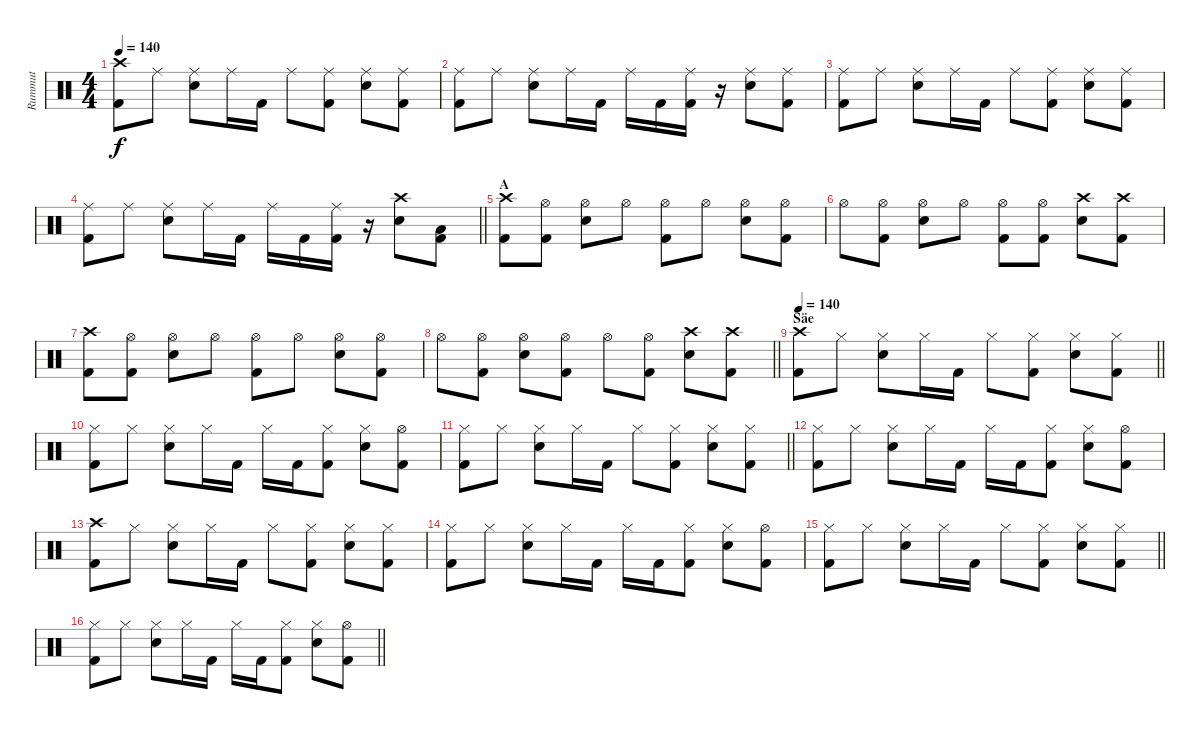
\track ("Rummut" "Rummut") {instrument percussion}
\staff {score}
\articulation defaults
\ts (4 4)
\tempo 140
\clef neutral
\ks c
("Crash high (hit)" "Kick (hit) 2").8{dy f} "Ride (middle)".8 ("Ride (middle)" "Snare (hit) 2").8 "Ride (middle)".16 "Kick (hit) 2".16 "Ride (middle)".8 ("Ride (middle)" "Kick (hit) 2").8 ("Ride (middle)" "Snare (hit) 2").8 ("Ride (middle)" "Kick (hit) 2").8 |
("Ride (middle)" "Kick (hit) 2").8 "Ride (middle)".8 ("Ride (middle)" "Snare (hit) 2").8 "Ride (middle)".16 "Kick (hit) 2".16 "Ride (middle)".16 "Kick (hit) 2".16 ("Ride (middle)" "Kick (hit) 2").16 r.16 ("Ride (middle)" "Snare (hit) 2").8 ("Ride (middle)" "Kick (hit) 2").8 |
("Ride (middle)" "Kick (hit) 2").8 "Ride (middle)".8 ("Ride (middle)" "Snare (hit) 2").8 "Ride (middle)".16 "Kick (hit) 2".16 "Ride (middle)".8 ("Ride (middle)" "Kick (hit) 2").8 ("Ride (middle)" "Snare (hit) 2").8 ("Ride (middle)" "Kick (hit) 2").8 |
\barLineRight lightlight
("Ride (middle)" "Kick (hit) 2").8 "Ride (middle)".8 ("Ride (middle)" "Snare (hit) 2").8 "Ride (middle)".16 "Kick (hit) 2".16 "Ride (middle)".16 "Kick (hit) 2".16 ("Ride (middle)" "Kick (hit) 2").16 r.16 ("Crash high (hit)" "Snare (hit) 2").8 ("Low Floor Tom (hit)" "Kick (hit) 2").8 |
\section ("" "A")
("Crash high (hit)" "Kick (hit) 2").8 ("Hi-Hat (open)" "Kick (hit) 2").8 ("Hi-Hat (open)" "Snare (hit) 2").8 "Hi-Hat (open)".8 ("Hi-Hat (open)" "Kick (hit) 2").8 "Hi-Hat (open)".8 ("Hi-Hat (open)" "Snare (hit) 2").8 ("Hi-Hat (open)" "Kick (hit) 2").8 |
"Hi-Hat (open)".8 ("Hi-Hat (open)" "Kick (hit) 2").8 ("Hi-Hat (open)" "Snare (hit) 2").8 "Hi-Hat (open)".8 ("Hi-Hat (open)" "Kick (hit) 2").8 ("Hi-Hat (open)" "Kick (hit) 2").8 ("Crash high (hit)" "Snare (hit) 2").8 ("Crash high (hit)" "Kick (hit) 2").8 |
("Crash high (hit)" "Kick (hit) 2").8 ("Hi-Hat (open)" "Kick (hit) 2").8 ("Hi-Hat (open)" "Snare (hit) 2").8 "Hi-Hat (open)".8 ("Hi-Hat (open)" "Kick (hit) 2").8 "Hi-Hat (open)".8 ("Hi-Hat (open)" "Snare (hit) 2").8 ("Hi-Hat (open)" "Kick (hit) 2").8 |
\barLineRight lightlight "Hi-Hat (open)".8
("Hi-Hat (open)" "Kick (hit) 2").8 ("Hi-Hat (open)" "Snare (hit) 2").8 ("Hi-Hat (open)" "Kick (hit) 2").8 "Hi-Hat (open)".8 ("Hi-Hat (open)" "Kick (hit) 2").8 ("Crash high (hit)" "Snare (hit) 2").8 ("Crash high (hit)" "Kick (hit) 2").8 |
\section ("" "Säe")
\tempo 140
\barLineRight lightlight
("Crash high (hit)" "Kick (hit) 2").8 "Hi-Hat (closed)".8 ("Hi-Hat (closed)" "Snare (hit) 2").8 "Hi-Hat (closed)".16 "Kick (hit) 2".16 "Hi-Hat (closed)".8 ("Hi-Hat (closed)" "Kick (hit) 2").8 ("Hi-Hat (closed)" "Snare (hit) 2").8 ("Hi-Hat (closed)" "Kick (hit) 2").8 |
("Hi-Hat (closed)" "Kick (hit) 2").8 "Hi-Hat (closed)".8 ("Hi-Hat (closed)" "Snare (hit) 2").8 "Hi-Hat (closed)".16 "Kick (hit) 2".16 "Hi-Hat (closed)".16 "Kick (hit) 2".16 ("Hi-Hat (closed)" "Kick (hit) 2").8 ("Hi-Hat (closed)" "Snare (hit) 2").8 ("Hi-Hat (open)" "Kick (hit) 2").8 |
\barLineRight lightlight
("Hi-Hat (closed)" "Kick (hit) 2").8 "Hi-Hat (closed)".8 ("Hi-Hat (closed)" "Snare (hit) 2").8 "Hi-Hat (closed)".16 "Kick (hit) 2".16 "Hi-Hat (closed)".8 ("Hi-Hat (closed)" "Kick (hit) 2").8 ("Hi-Hat (closed)" "Snare (hit) 2").8 ("Hi-Hat (closed)" "Kick (hit) 2").8 |
("Hi-Hat (closed)" "Kick (hit) 2").8 "Hi-Hat (closed)".8 ("Hi-Hat (closed)" "Snare (hit) 2").8 "Hi-Hat (closed)".16 "Kick (hit) 2".16 "Hi-Hat (closed)".16 "Kick (hit) 2".16 ("Hi-Hat (closed)" "Kick (hit) 2").8 ("Hi-Hat (closed)" "Snare (hit) 2").8 ("Hi-Hat (open)" "Kick (hit) 2").8 |
("Crash high (hit)" "Kick (hit) 2").8 "Hi-Hat (closed)".8 ("Hi-Hat (closed)" "Snare (hit) 2").8 "Hi-Hat (closed)".16 "Kick (hit) 2".16 "Hi-Hat (closed)".8 ("Hi-Hat (closed)" "Kick (hit) 2").8 ("Hi-Hat (closed)" "Snare (hit) 2").8 ("Hi-Hat (closed)" "Kick (hit) 2").8 |
("Hi-Hat (closed)" "Kick (hit) 2").8 "Hi-Hat (closed)".8 ("Hi-Hat (closed)" "Snare (hit) 2").8 "Hi-Hat (closed)".16 "Kick (hit) 2".16 "Hi-Hat (closed)".16 "Kick (hit) 2".16 ("Hi-Hat (closed)" "Kick (hit) 2").8 ("Hi-Hat (closed)" "Snare (hit) 2").8 ("Hi-Hat (open)" "Kick (hit) 2").8 |
\barLineRight lightlight
("Hi-Hat (closed)" "Kick (hit) 2").8 "Hi-Hat (closed)".8 ("Hi-Hat (closed)" "Snare (hit) 2").8 "Hi-Hat (closed)".16 "Kick (hit) 2".16 "Hi-Hat (closed)".8 ("Hi-Hat (closed)" "Kick (hit) 2").8 ("Hi-Hat (closed)" "Snare (hit) 2").8 ("Hi-Hat (closed)" "Kick (hit) 2").8 |
\barLineRight lightlight
("Hi-Hat (closed)" "Kick (hit) 2").8 "Hi-Hat (closed)".8 ("Hi-Hat (closed)" "Snare (hit) 2").8 "Hi-Hat (closed)".16 "Kick (hit) 2".16 "Hi-Hat (closed)".16 "Kick (hit) 2".16 ("Hi-Hat (closed)" "Kick (hit) 2").8 ("Hi-Hat (closed)" "Snare (hit) 2").8 ("Hi-Hat (open)" "Kick (hit) 2").8
